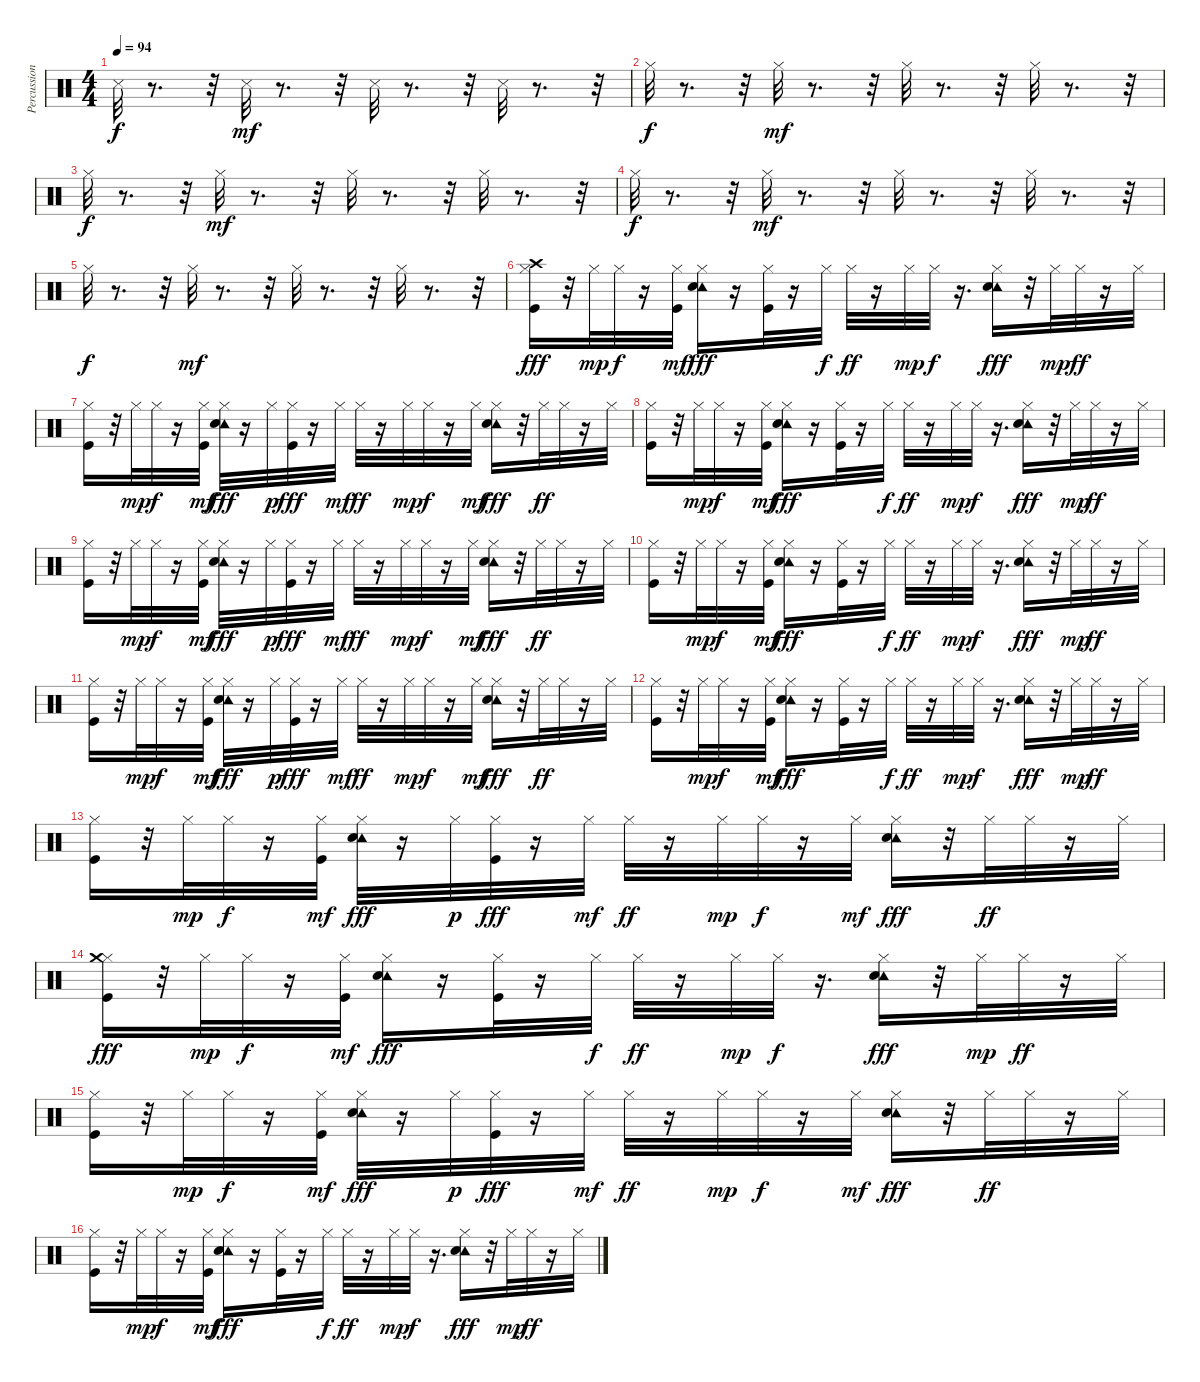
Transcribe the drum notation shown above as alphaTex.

\track ("Percussion" "Percussion") {instrument percussion}
\staff {score}
\articulation defaults
\ts (4 4)
\tempo 94
\clef neutral
\ks c "Snare (side stick) 3".32{dy f}
r.8{d} r.32 "Snare (side stick) 3".32{dy mf} r.8{d} r.32 "Snare (side stick) 3".32 r.8{d} r.32 "Snare (side stick) 3".32 r.8{d} r.32 |
"Hi-Hat (closed)".32{dy f} r.8{d} r.32 "Hi-Hat (closed)".32{dy mf} r.8{d} r.32 "Hi-Hat (closed)".32 r.8{d} r.32 "Hi-Hat (closed)".32 r.8{d} r.32 |
"Hi-Hat (closed)".32{dy f} r.8{d} r.32 "Hi-Hat (closed)".32{dy mf} r.8{d} r.32 "Hi-Hat (closed)".32 r.8{d} r.32 "Hi-Hat (closed)".32 r.8{d} r.32 |
"Hi-Hat (closed)".32{dy f} r.8{d} r.32 "Hi-Hat (closed)".32{dy mf} r.8{d} r.32 "Hi-Hat (closed)".32 r.8{d} r.32 "Hi-Hat (closed)".32 r.8{d} r.32 |
"Hi-Hat (closed)".32{dy f} r.8{d} r.32 "Hi-Hat (closed)".32{dy mf} r.8{d} r.32 "Hi-Hat (closed)".32 r.8{d} r.32 "Hi-Hat (closed)".32 r.8{d} r.32 |
("Kick (hit)" "Hi-Hat (closed)" "Crash high (hit)").16{dy fff} r.32 "Hi-Hat (closed)".32{dy mp} "Hi-Hat (closed)".32{dy f} r.16 ("Kick (hit)" "Hi-Hat (closed)").32{dy mf} ("Hi-Hat (closed)" "Tambourine (hit)" "Snare (hit) 2").16{dy fff} r.16 ("Kick (hit)" "Hi-Hat (closed)").32 r.16 "Hi-Hat (closed)".32{dy f} "Hi-Hat (closed)".32{dy ff} r.16 "Hi-Hat (closed)".32{dy mp} "Hi-Hat (closed)".32{dy f} r.16{d} ("Hi-Hat (closed)" "Tambourine (hit)" "Snare (hit) 2").16{dy fff} r.32 "Hi-Hat (closed)".32{dy mp} "Hi-Hat (closed)".32{dy ff} r.16 "Hi-Hat (closed)".32 |
("Kick (hit)" "Hi-Hat (closed)").16 r.32 "Hi-Hat (closed)".32{dy mp} "Hi-Hat (closed)".32{dy f} r.16 ("Kick (hit)" "Hi-Hat (closed)").32{dy mf} ("Hi-Hat (closed)" "Tambourine (hit)" "Snare (hit) 2").32{dy fff} r.16 "Hi-Hat (closed)".32{dy p} ("Kick (hit)" "Hi-Hat (closed)").32{dy fff} r.16 "Hi-Hat (closed)".32{dy mf} "Hi-Hat (closed)".32{dy ff} r.16 "Hi-Hat (closed)".32{dy mp} "Hi-Hat (closed)".32{dy f} r.16 "Hi-Hat (closed)".32{dy mf} ("Hi-Hat (closed)" "Tambourine (hit)" "Snare (hit) 2").16{dy fff} r.32 "Hi-Hat (closed)".32{dy ff} "Hi-Hat (closed)".32 r.16 "Hi-Hat (closed)".32 |
("Kick (hit)" "Hi-Hat (closed)").16 r.32 "Hi-Hat (closed)".32{dy mp} "Hi-Hat (closed)".32{dy f} r.16 ("Kick (hit)" "Hi-Hat (closed)").32{dy mf} ("Hi-Hat (closed)" "Tambourine (hit)" "Snare (hit) 2").16{dy fff} r.16 ("Kick (hit)" "Hi-Hat (closed)").32 r.16 "Hi-Hat (closed)".32{dy f} "Hi-Hat (closed)".32{dy ff} r.16 "Hi-Hat (closed)".32{dy mp} "Hi-Hat (closed)".32{dy f} r.16{d} ("Hi-Hat (closed)" "Tambourine (hit)" "Snare (hit) 2").16{dy fff} r.32 "Hi-Hat (closed)".32{dy mp} "Hi-Hat (closed)".32{dy ff} r.16 "Hi-Hat (closed)".32 |
("Kick (hit)" "Hi-Hat (closed)").16 r.32 "Hi-Hat (closed)".32{dy mp} "Hi-Hat (closed)".32{dy f} r.16 ("Kick (hit)" "Hi-Hat (closed)").32{dy mf} ("Hi-Hat (closed)" "Tambourine (hit)" "Snare (hit) 2").32{dy fff} r.16 "Hi-Hat (closed)".32{dy p} ("Kick (hit)" "Hi-Hat (closed)").32{dy fff} r.16 "Hi-Hat (closed)".32{dy mf} "Hi-Hat (closed)".32{dy ff} r.16 "Hi-Hat (closed)".32{dy mp} "Hi-Hat (closed)".32{dy f} r.16 "Hi-Hat (closed)".32{dy mf} ("Hi-Hat (closed)" "Tambourine (hit)" "Snare (hit) 2").16{dy fff} r.32 "Hi-Hat (closed)".32{dy ff} "Hi-Hat (closed)".32 r.16 "Hi-Hat (closed)".32 |
("Kick (hit)" "Hi-Hat (closed)").16 r.32 "Hi-Hat (closed)".32{dy mp} "Hi-Hat (closed)".32{dy f} r.16 ("Kick (hit)" "Hi-Hat (closed)").32{dy mf} ("Hi-Hat (closed)" "Tambourine (hit)" "Snare (hit) 2").16{dy fff} r.16 ("Kick (hit)" "Hi-Hat (closed)").32 r.16 "Hi-Hat (closed)".32{dy f} "Hi-Hat (closed)".32{dy ff} r.16 "Hi-Hat (closed)".32{dy mp} "Hi-Hat (closed)".32{dy f} r.16{d} ("Hi-Hat (closed)" "Tambourine (hit)" "Snare (hit) 2").16{dy fff} r.32 "Hi-Hat (closed)".32{dy mp} "Hi-Hat (closed)".32{dy ff} r.16 "Hi-Hat (closed)".32 |
("Kick (hit)" "Hi-Hat (closed)").16 r.32 "Hi-Hat (closed)".32{dy mp} "Hi-Hat (closed)".32{dy f} r.16 ("Kick (hit)" "Hi-Hat (closed)").32{dy mf} ("Hi-Hat (closed)" "Tambourine (hit)" "Snare (hit) 2").32{dy fff} r.16 "Hi-Hat (closed)".32{dy p} ("Kick (hit)" "Hi-Hat (closed)").32{dy fff} r.16 "Hi-Hat (closed)".32{dy mf} "Hi-Hat (closed)".32{dy ff} r.16 "Hi-Hat (closed)".32{dy mp} "Hi-Hat (closed)".32{dy f} r.16 "Hi-Hat (closed)".32{dy mf} ("Hi-Hat (closed)" "Tambourine (hit)" "Snare (hit) 2").16{dy fff} r.32 "Hi-Hat (closed)".32{dy ff} "Hi-Hat (closed)".32 r.16 "Hi-Hat (closed)".32 |
("Kick (hit)" "Hi-Hat (closed)").16 r.32 "Hi-Hat (closed)".32{dy mp} "Hi-Hat (closed)".32{dy f} r.16 ("Kick (hit)" "Hi-Hat (closed)").32{dy mf} ("Hi-Hat (closed)" "Tambourine (hit)" "Snare (hit) 2").16{dy fff} r.16 ("Kick (hit)" "Hi-Hat (closed)").32 r.16 "Hi-Hat (closed)".32{dy f} "Hi-Hat (closed)".32{dy ff} r.16 "Hi-Hat (closed)".32{dy mp} "Hi-Hat (closed)".32{dy f} r.16{d} ("Hi-Hat (closed)" "Tambourine (hit)" "Snare (hit) 2").16{dy fff} r.32 "Hi-Hat (closed)".32{dy mp} "Hi-Hat (closed)".32{dy ff} r.16 "Hi-Hat (closed)".32 |
("Kick (hit)" "Hi-Hat (closed)").16 r.32 "Hi-Hat (closed)".32{dy mp} "Hi-Hat (closed)".32{dy f} r.16 ("Kick (hit)" "Hi-Hat (closed)").32{dy mf} ("Hi-Hat (closed)" "Tambourine (hit)" "Snare (hit) 2").32{dy fff} r.16 "Hi-Hat (closed)".32{dy p} ("Kick (hit)" "Hi-Hat (closed)").32{dy fff} r.16 "Hi-Hat (closed)".32{dy mf} "Hi-Hat (closed)".32{dy ff} r.16 "Hi-Hat (closed)".32{dy mp} "Hi-Hat (closed)".32{dy f} r.16 "Hi-Hat (closed)".32{dy mf} ("Hi-Hat (closed)" "Tambourine (hit)" "Snare (hit) 2").16{dy fff} r.32 "Hi-Hat (closed)".32{dy ff} "Hi-Hat (closed)".32 r.16 "Hi-Hat (closed)".32 |
("Kick (hit)" "Hi-Hat (closed)" "Crash medium (hit)").16{dy fff} r.32 "Hi-Hat (closed)".32{dy mp} "Hi-Hat (closed)".32{dy f} r.16 ("Kick (hit)" "Hi-Hat (closed)").32{dy mf} ("Hi-Hat (closed)" "Tambourine (hit)" "Snare (hit) 2").16{dy fff} r.16 ("Kick (hit)" "Hi-Hat (closed)").32 r.16 "Hi-Hat (closed)".32{dy f} "Hi-Hat (closed)".32{dy ff} r.16 "Hi-Hat (closed)".32{dy mp} "Hi-Hat (closed)".32{dy f} r.16{d} ("Hi-Hat (closed)" "Tambourine (hit)" "Snare (hit) 2").16{dy fff} r.32 "Hi-Hat (closed)".32{dy mp} "Hi-Hat (closed)".32{dy ff} r.16 "Hi-Hat (closed)".32 |
("Kick (hit)" "Hi-Hat (closed)").16 r.32 "Hi-Hat (closed)".32{dy mp} "Hi-Hat (closed)".32{dy f} r.16 ("Kick (hit)" "Hi-Hat (closed)").32{dy mf} ("Hi-Hat (closed)" "Tambourine (hit)" "Snare (hit) 2").32{dy fff} r.16 "Hi-Hat (closed)".32{dy p} ("Kick (hit)" "Hi-Hat (closed)").32{dy fff} r.16 "Hi-Hat (closed)".32{dy mf} "Hi-Hat (closed)".32{dy ff} r.16 "Hi-Hat (closed)".32{dy mp} "Hi-Hat (closed)".32{dy f} r.16 "Hi-Hat (closed)".32{dy mf} ("Hi-Hat (closed)" "Tambourine (hit)" "Snare (hit) 2").16{dy fff} r.32 "Hi-Hat (closed)".32{dy ff} "Hi-Hat (closed)".32 r.16 "Hi-Hat (closed)".32 |
("Kick (hit)" "Hi-Hat (closed)").16 r.32 "Hi-Hat (closed)".32{dy mp} "Hi-Hat (closed)".32{dy f} r.16 ("Kick (hit)" "Hi-Hat (closed)").32{dy mf} ("Hi-Hat (closed)" "Tambourine (hit)" "Snare (hit) 2").16{dy fff} r.16 ("Kick (hit)" "Hi-Hat (closed)").32 r.16 "Hi-Hat (closed)".32{dy f} "Hi-Hat (closed)".32{dy ff} r.16 "Hi-Hat (closed)".32{dy mp} "Hi-Hat (closed)".32{dy f} r.16{d} ("Hi-Hat (closed)" "Tambourine (hit)" "Snare (hit) 2").16{dy fff} r.32 "Hi-Hat (closed)".32{dy mp} "Hi-Hat (closed)".32{dy ff} r.16 "Hi-Hat (closed)".32
